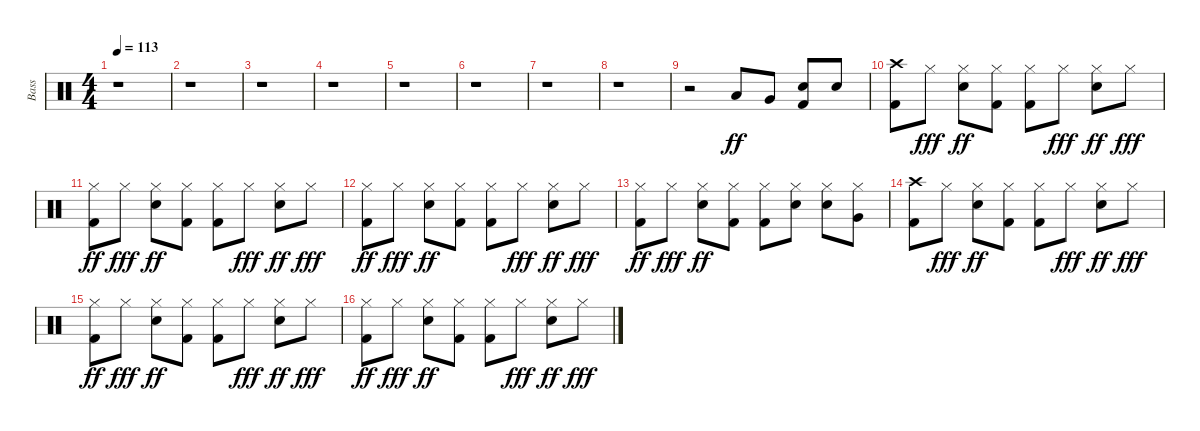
\track (" Bass" " Bass") {instrument percussion}
\staff {score}
\articulation defaults
\ts (4 4)
\tempo 113
\clef neutral
\ks c
r.1{dy ff} |
r.1 |
r.1 |
r.1 |
r.1 |
r.1 |
r.1 |
r.1 |
r.2 "Low Tom (hit)".8 "Very Low Tom (hit)".8 ("Snare (hit) 2" "Kick (hit) 2").8 "Snare (hit) 2".8 |
("Crash high (hit)" "Kick (hit) 2").8 "Hi-Hat (closed)".8{dy fff} ("Hi-Hat (closed)" "Snare (hit) 2").8{dy ff} ("Hi-Hat (closed)" "Kick (hit) 2").8 ("Hi-Hat (closed)" "Kick (hit) 2").8 "Hi-Hat (closed)".8{dy fff} ("Hi-Hat (closed)" "Snare (hit) 2").8{dy ff} "Hi-Hat (closed)".8{dy fff} |
("Hi-Hat (closed)" "Kick (hit) 2").8{dy ff} "Hi-Hat (closed)".8{dy fff} ("Hi-Hat (closed)" "Snare (hit) 2").8{dy ff} ("Hi-Hat (closed)" "Kick (hit) 2").8 ("Hi-Hat (closed)" "Kick (hit) 2").8 "Hi-Hat (closed)".8{dy fff} ("Hi-Hat (closed)" "Snare (hit) 2").8{dy ff} "Hi-Hat (closed)".8{dy fff} |
("Hi-Hat (closed)" "Kick (hit) 2").8{dy ff} "Hi-Hat (closed)".8{dy fff} ("Hi-Hat (closed)" "Snare (hit) 2").8{dy ff} ("Hi-Hat (closed)" "Kick (hit) 2").8 ("Hi-Hat (closed)" "Kick (hit) 2").8 "Hi-Hat (closed)".8{dy fff} ("Hi-Hat (closed)" "Snare (hit) 2").8{dy ff} "Hi-Hat (closed)".8{dy fff} |
("Hi-Hat (closed)" "Kick (hit) 2").8{dy ff} "Hi-Hat (closed)".8{dy fff} ("Hi-Hat (closed)" "Snare (hit) 2").8{dy ff} ("Hi-Hat (closed)" "Kick (hit) 2").8 ("Hi-Hat (closed)" "Kick (hit) 2").8 ("Hi-Hat (closed)" "Snare (hit) 2").8 ("Hi-Hat (closed)" "Snare (hit) 2").8 ("Hi-Hat (closed)" "Very Low Tom (hit)").8 |
("Crash high (hit)" "Kick (hit) 2").8 "Hi-Hat (closed)".8{dy fff} ("Hi-Hat (closed)" "Snare (hit) 2").8{dy ff} ("Hi-Hat (closed)" "Kick (hit) 2").8 ("Hi-Hat (closed)" "Kick (hit) 2").8 "Hi-Hat (closed)".8{dy fff} ("Hi-Hat (closed)" "Snare (hit) 2").8{dy ff} "Hi-Hat (closed)".8{dy fff} |
("Hi-Hat (closed)" "Kick (hit) 2").8{dy ff} "Hi-Hat (closed)".8{dy fff} ("Hi-Hat (closed)" "Snare (hit) 2").8{dy ff} ("Hi-Hat (closed)" "Kick (hit) 2").8 ("Hi-Hat (closed)" "Kick (hit) 2").8 "Hi-Hat (closed)".8{dy fff} ("Hi-Hat (closed)" "Snare (hit) 2").8{dy ff} "Hi-Hat (closed)".8{dy fff} |
("Hi-Hat (closed)" "Kick (hit) 2").8{dy ff} "Hi-Hat (closed)".8{dy fff} ("Hi-Hat (closed)" "Snare (hit) 2").8{dy ff} ("Hi-Hat (closed)" "Kick (hit) 2").8 ("Hi-Hat (closed)" "Kick (hit) 2").8 "Hi-Hat (closed)".8{dy fff} ("Hi-Hat (closed)" "Snare (hit) 2").8{dy ff} "Hi-Hat (closed)".8{dy fff}
